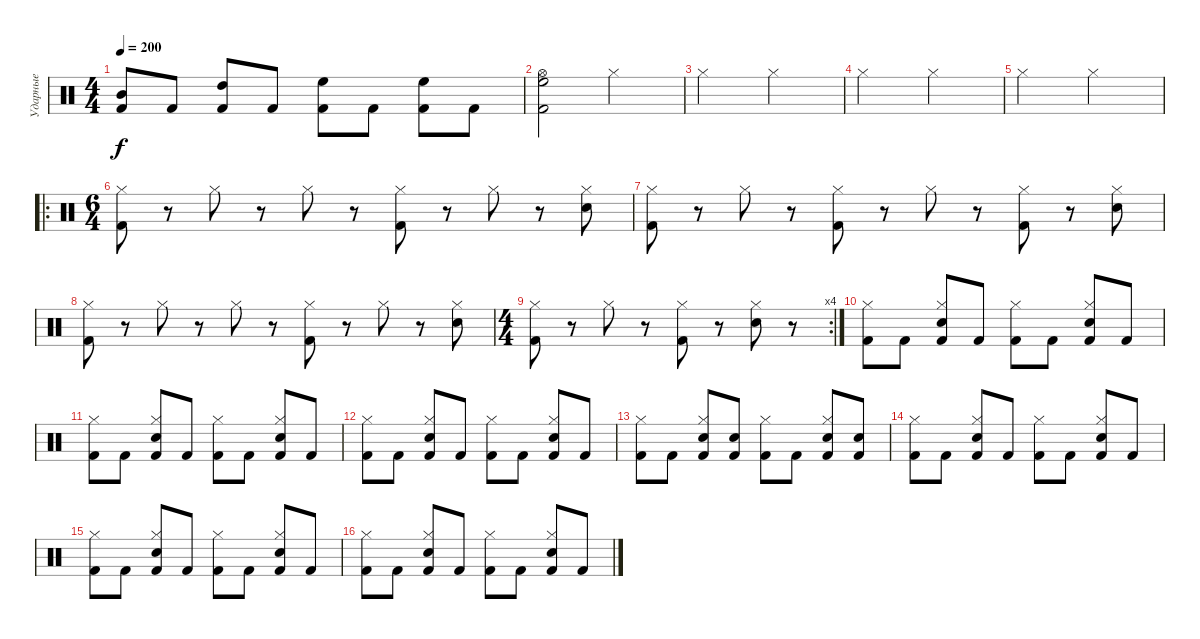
\track ("Ударные" "Ударные") {instrument percussion}
\staff {score}
\articulation defaults
\ts (4 4)
\tempo 200
\clef neutral
\ks c
("Mid Tom (hit)" "Kick (hit) 2").8{dy f} "Kick (hit) 2".8 ("High Tom (hit)" "Kick (hit) 2").8 "Kick (hit) 2".8 ("High Floor Tom (hit)" "Kick (hit) 2").8 "Kick (hit) 2".8 ("High Floor Tom (hit)" "Kick (hit) 2").8 "Kick (hit) 2".8 |
("Hi-Hat (open)" "High Floor Tom (hit)" "Kick (hit) 2").2 "Hi-Hat (closed)".2 |
"Hi-Hat (closed)".2 "Hi-Hat (closed)".2 |
"Hi-Hat (closed)".2 "Hi-Hat (closed)".2 |
"Hi-Hat (closed)".2 "Hi-Hat (closed)".2 |
\ro
\ts (6 4)
("Hi-Hat (closed)" "Kick (hit) 2").8 r.8 "Hi-Hat (closed)".8 r.8 "Hi-Hat (closed)".8 r.8 ("Hi-Hat (closed)" "Kick (hit) 2").8 r.8 "Hi-Hat (closed)".8 r.8 ("Hi-Hat (closed)" "Snare (hit) 2").8 |
("Hi-Hat (closed)" "Kick (hit) 2").8 r.8 "Hi-Hat (closed)".8 r.8 ("Hi-Hat (closed)" "Kick (hit) 2").8 r.8 "Hi-Hat (closed)".8 r.8 ("Hi-Hat (closed)" "Kick (hit) 2").8 r.8 ("Hi-Hat (closed)" "Snare (hit) 2").8 |
("Hi-Hat (closed)" "Kick (hit) 2").8 r.8 "Hi-Hat (closed)".8 r.8 "Hi-Hat (closed)".8 r.8 ("Hi-Hat (closed)" "Kick (hit) 2").8 r.8 "Hi-Hat (closed)".8 r.8 ("Hi-Hat (closed)" "Snare (hit) 2").8 |
\rc 4
\ts (4 4)
("Hi-Hat (closed)" "Kick (hit) 2").8 r.8 "Hi-Hat (closed)".8 r.8 ("Hi-Hat (closed)" "Kick (hit) 2").8 r.8 ("Hi-Hat (closed)" "Snare (hit) 2").8 r.8 |
("Hi-Hat (closed)" "Kick (hit) 2").8 "Kick (hit) 2".8 ("Hi-Hat (closed)" "Snare (hit) 2" "Kick (hit) 2").8 "Kick (hit) 2".8 ("Hi-Hat (closed)" "Kick (hit) 2").8 "Kick (hit) 2".8 ("Hi-Hat (closed)" "Snare (hit) 2" "Kick (hit) 2").8 "Kick (hit) 2".8 |
("Hi-Hat (closed)" "Kick (hit) 2").8 "Kick (hit) 2".8 ("Hi-Hat (closed)" "Snare (hit) 2" "Kick (hit) 2").8 "Kick (hit) 2".8 ("Hi-Hat (closed)" "Kick (hit) 2").8 "Kick (hit) 2".8 ("Hi-Hat (closed)" "Snare (hit) 2" "Kick (hit) 2").8 "Kick (hit) 2".8 |
("Hi-Hat (closed)" "Kick (hit) 2").8 "Kick (hit) 2".8 ("Hi-Hat (closed)" "Snare (hit) 2" "Kick (hit) 2").8 "Kick (hit) 2".8 ("Hi-Hat (closed)" "Kick (hit) 2").8 "Kick (hit) 2".8 ("Hi-Hat (closed)" "Snare (hit) 2" "Kick (hit) 2").8 "Kick (hit) 2".8 |
("Hi-Hat (closed)" "Kick (hit) 2").8 "Kick (hit) 2".8 ("Hi-Hat (closed)" "Snare (hit) 2" "Kick (hit) 2").8 ("Snare (hit) 2" "Kick (hit) 2").8 ("Hi-Hat (closed)" "Kick (hit) 2").8 "Kick (hit) 2".8 ("Hi-Hat (closed)" "Snare (hit) 2" "Kick (hit) 2").8 ("Snare (hit) 2" "Kick (hit) 2").8 |
("Hi-Hat (closed)" "Kick (hit) 2").8 "Kick (hit) 2".8 ("Hi-Hat (closed)" "Snare (hit) 2" "Kick (hit) 2").8 "Kick (hit) 2".8 ("Hi-Hat (closed)" "Kick (hit) 2").8 "Kick (hit) 2".8 ("Hi-Hat (closed)" "Snare (hit) 2" "Kick (hit) 2").8 "Kick (hit) 2".8 |
("Hi-Hat (closed)" "Kick (hit) 2").8 "Kick (hit) 2".8 ("Hi-Hat (closed)" "Snare (hit) 2" "Kick (hit) 2").8 "Kick (hit) 2".8 ("Hi-Hat (closed)" "Kick (hit) 2").8 "Kick (hit) 2".8 ("Hi-Hat (closed)" "Snare (hit) 2" "Kick (hit) 2").8 "Kick (hit) 2".8 |
("Hi-Hat (closed)" "Kick (hit) 2").8 "Kick (hit) 2".8 ("Hi-Hat (closed)" "Snare (hit) 2" "Kick (hit) 2").8 "Kick (hit) 2".8 ("Hi-Hat (closed)" "Kick (hit) 2").8 "Kick (hit) 2".8 ("Hi-Hat (closed)" "Snare (hit) 2" "Kick (hit) 2").8 "Kick (hit) 2".8
